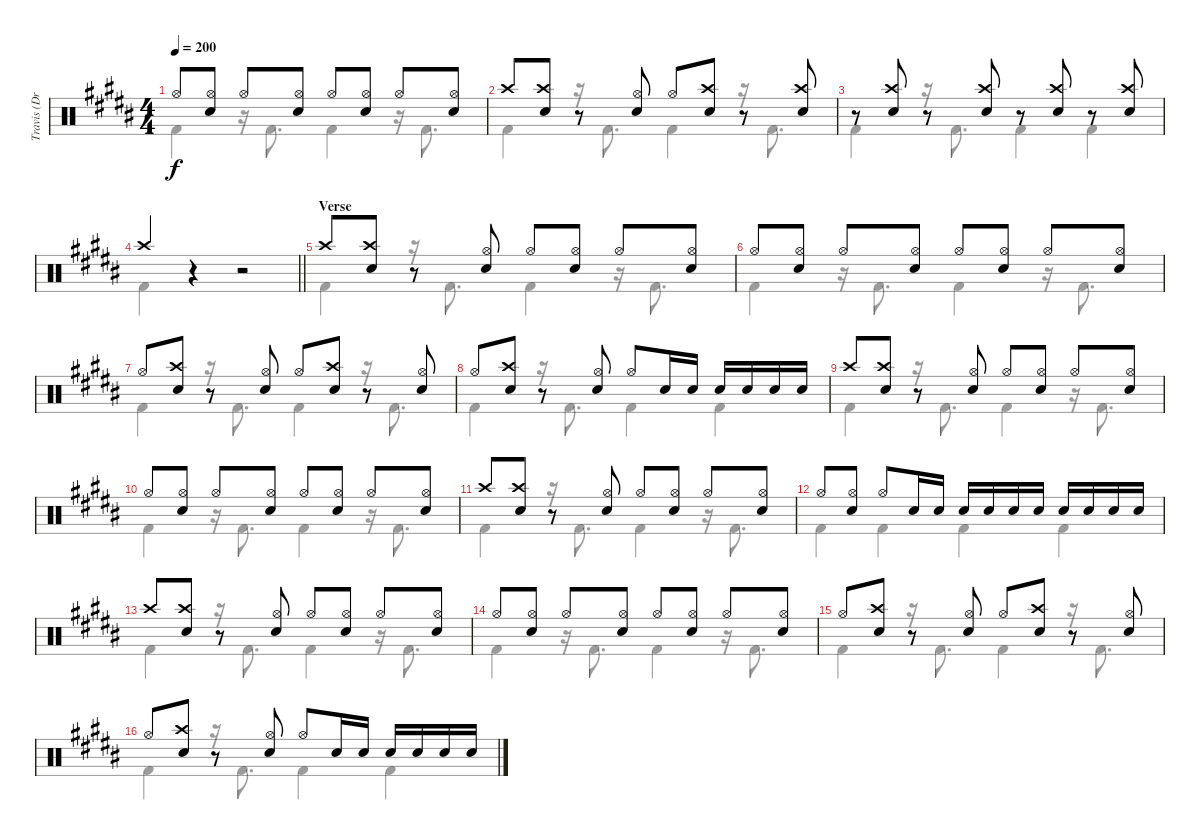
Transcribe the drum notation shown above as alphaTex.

\track ("Travis (Drums)" "Travis (Dr") {instrument percussion}
\staff {score}
\articulation defaults
\voice
\ts (4 4)
\tempo 200
\clef neutral
\ks b "Hi-Hat (open)".8{dy f}
("Electric Snare (hit)" "Hi-Hat (open)").8 "Hi-Hat (open)".8 ("Electric Snare (hit)" "Hi-Hat (open)").8 "Hi-Hat (open)".8 ("Electric Snare (hit)" "Hi-Hat (open)").8 "Hi-Hat (open)".8 ("Electric Snare (hit)" "Hi-Hat (open)").8 |
"Crash high (hit)".8 ("Crash high (hit)" "Electric Snare (hit)").8 r.8 ("Electric Snare (hit)" "Hi-Hat (open)").8 "Hi-Hat (open)".8 ("Crash high (hit)" "Electric Snare (hit)").8 r.8 ("Crash high (hit)" "Electric Snare (hit)").8 |
r.8 ("Crash high (hit)" "Electric Snare (hit)").8 r.8 ("Crash high (hit)" "Electric Snare (hit)").8 r.8 ("Crash high (hit)" "Electric Snare (hit)").8 r.8 ("Crash high (hit)" "Electric Snare (hit)").8 |
\barLineRight lightlight "Crash high (hit)".4
r.4 r.2 |
\section ("" "Verse")
"Crash high (hit)".8 ("Crash high (hit)" "Electric Snare (hit)").8 r.8 ("Electric Snare (hit)" "Hi-Hat (open)").8 "Hi-Hat (open)".8 ("Electric Snare (hit)" "Hi-Hat (open)").8 "Hi-Hat (open)".8 ("Electric Snare (hit)" "Hi-Hat (open)").8 |
"Hi-Hat (open)".8 ("Electric Snare (hit)" "Hi-Hat (open)").8 "Hi-Hat (open)".8 ("Electric Snare (hit)" "Hi-Hat (open)").8 "Hi-Hat (open)".8 ("Electric Snare (hit)" "Hi-Hat (open)").8 "Hi-Hat (open)".8 ("Electric Snare (hit)" "Hi-Hat (open)").8 |
"Hi-Hat (open)".8 ("Crash high (hit)" "Electric Snare (hit)").8 r.8 ("Electric Snare (hit)" "Hi-Hat (open)").8 "Hi-Hat (open)".8 ("Crash high (hit)" "Electric Snare (hit)").8 r.8 ("Electric Snare (hit)" "Hi-Hat (open)").8 |
"Hi-Hat (open)".8 ("Crash high (hit)" "Electric Snare (hit)").8 r.8 ("Electric Snare (hit)" "Hi-Hat (open)").8 "Hi-Hat (open)".8 "Electric Snare (hit)".16 "Electric Snare (hit)".16 "Electric Snare (hit)".16 "Electric Snare (hit)".16 "Electric Snare (hit)".16 "Electric Snare (hit)".16 |
"Crash high (hit)".8 ("Crash high (hit)" "Electric Snare (hit)").8 r.8 ("Electric Snare (hit)" "Hi-Hat (open)").8 "Hi-Hat (open)".8 ("Electric Snare (hit)" "Hi-Hat (open)").8 "Hi-Hat (open)".8 ("Electric Snare (hit)" "Hi-Hat (open)").8 |
"Hi-Hat (open)".8 ("Electric Snare (hit)" "Hi-Hat (open)").8 "Hi-Hat (open)".8 ("Electric Snare (hit)" "Hi-Hat (open)").8 "Hi-Hat (open)".8 ("Electric Snare (hit)" "Hi-Hat (open)").8 "Hi-Hat (open)".8 ("Electric Snare (hit)" "Hi-Hat (open)").8 |
"Crash high (hit)".8 ("Crash high (hit)" "Electric Snare (hit)").8 r.8 ("Electric Snare (hit)" "Hi-Hat (open)").8 "Hi-Hat (open)".8 ("Electric Snare (hit)" "Hi-Hat (open)").8 "Hi-Hat (open)".8 ("Electric Snare (hit)" "Hi-Hat (open)").8 |
"Hi-Hat (open)".8 ("Electric Snare (hit)" "Hi-Hat (open)").8 "Hi-Hat (open)".8 "Electric Snare (hit)".16 "Electric Snare (hit)".16 "Electric Snare (hit)".16 "Electric Snare (hit)".16 "Electric Snare (hit)".16 "Electric Snare (hit)".16 "Electric Snare (hit)".16 "Electric Snare (hit)".16 "Electric Snare (hit)".16 "Electric Snare (hit)".16 |
"Crash high (hit)".8 ("Crash high (hit)" "Electric Snare (hit)").8 r.8 ("Electric Snare (hit)" "Hi-Hat (open)").8 "Hi-Hat (open)".8 ("Electric Snare (hit)" "Hi-Hat (open)").8 "Hi-Hat (open)".8 ("Electric Snare (hit)" "Hi-Hat (open)").8 |
"Hi-Hat (open)".8 ("Electric Snare (hit)" "Hi-Hat (open)").8 "Hi-Hat (open)".8 ("Electric Snare (hit)" "Hi-Hat (open)").8 "Hi-Hat (open)".8 ("Electric Snare (hit)" "Hi-Hat (open)").8 "Hi-Hat (open)".8 ("Electric Snare (hit)" "Hi-Hat (open)").8 |
"Hi-Hat (open)".8 ("Crash high (hit)" "Electric Snare (hit)").8 r.8 ("Electric Snare (hit)" "Hi-Hat (open)").8 "Hi-Hat (open)".8 ("Crash high (hit)" "Electric Snare (hit)").8 r.8 ("Electric Snare (hit)" "Hi-Hat (open)").8 |
"Hi-Hat (open)".8 ("Crash high (hit)" "Electric Snare (hit)").8 r.8 ("Electric Snare (hit)" "Hi-Hat (open)").8 "Hi-Hat (open)".8 "Electric Snare (hit)".16 "Electric Snare (hit)".16 "Electric Snare (hit)".16 "Electric Snare (hit)".16 "Electric Snare (hit)".16 "Electric Snare (hit)".16
\voice
\clef neutral
\ottava regular
\simile none
\ks b "Kick (hit) 2".4{dy f}
r.16 "Kick (hit) 2".8{d} "Kick (hit) 2".4 r.16 "Kick (hit) 2".8{d} |
"Kick (hit) 2".4 r.16 "Kick (hit) 2".8{d} "Kick (hit) 2".4 r.16 "Kick (hit) 2".8{d} |
"Kick (hit) 2".4 r.16 "Kick (hit) 2".8{d} "Kick (hit) 2".4 "Kick (hit) 2".4 |
\barLineRight lightlight "Kick (hit) 2".4
r.4 r.2 |
"Kick (hit) 2".4 r.16 "Kick (hit) 2".8{d} "Kick (hit) 2".4 r.16 "Kick (hit) 2".8{d} |
"Kick (hit) 2".4 r.16 "Kick (hit) 2".8{d} "Kick (hit) 2".4 r.16 "Kick (hit) 2".8{d} |
"Kick (hit) 2".4 r.16 "Kick (hit) 2".8{d} "Kick (hit) 2".4 r.16 "Kick (hit) 2".8{d} |
"Kick (hit) 2".4 r.16 "Kick (hit) 2".8{d} "Kick (hit) 2".4 "Kick (hit) 2".4 |
"Kick (hit) 2".4 r.16 "Kick (hit) 2".8{d} "Kick (hit) 2".4 r.16 "Kick (hit) 2".8{d} |
"Kick (hit) 2".4 r.16 "Kick (hit) 2".8{d} "Kick (hit) 2".4 r.16 "Kick (hit) 2".8{d} |
"Kick (hit) 2".4 r.16 "Kick (hit) 2".8{d} "Kick (hit) 2".4 r.16 "Kick (hit) 2".8{d} |
"Kick (hit) 2".4 "Kick (hit) 2".4 "Kick (hit) 2".4 "Kick (hit) 2".4 |
"Kick (hit) 2".4 r.16 "Kick (hit) 2".8{d} "Kick (hit) 2".4 r.16 "Kick (hit) 2".8{d} |
"Kick (hit) 2".4 r.16 "Kick (hit) 2".8{d} "Kick (hit) 2".4 r.16 "Kick (hit) 2".8{d} |
"Kick (hit) 2".4 r.16 "Kick (hit) 2".8{d} "Kick (hit) 2".4 r.16 "Kick (hit) 2".8{d} |
"Kick (hit) 2".4 r.16 "Kick (hit) 2".8{d} "Kick (hit) 2".4 "Kick (hit) 2".4
